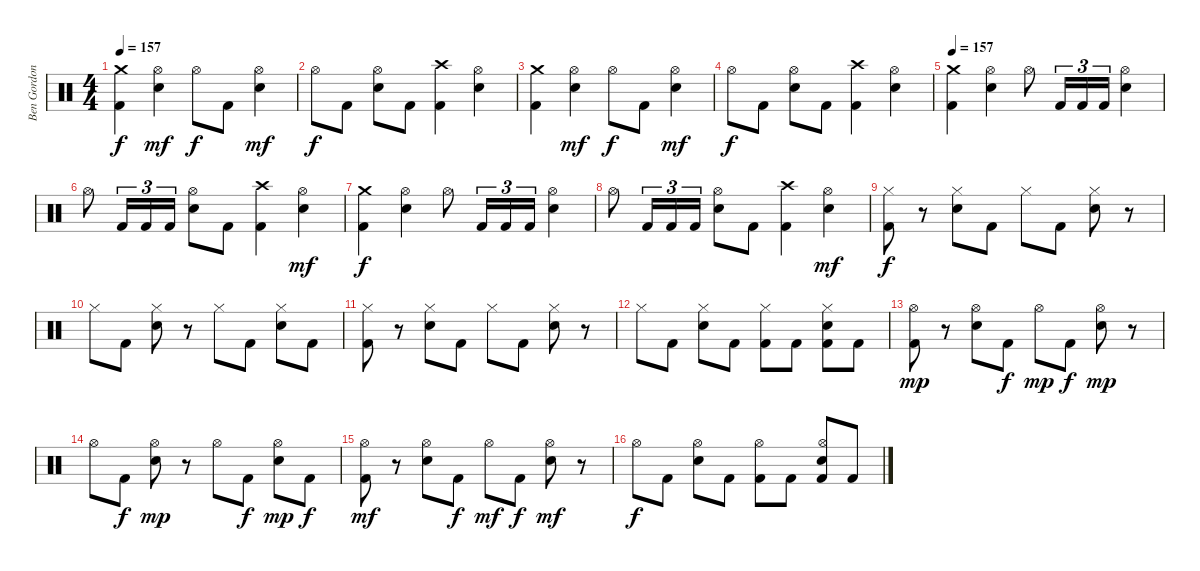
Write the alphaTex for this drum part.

\track ("Ben Gordon" "Ben Gordon") {instrument percussion}
\staff {score}
\articulation defaults
\ts (4 4)
\tempo 157
\clef neutral
\ks c
("Crash medium (hit)" "Kick (hit) 2").4{dy f} ("Hi-Hat (open)" "Electric Snare (hit)").4{dy mf} "Hi-Hat (open)".8{dy f} "Kick (hit) 2".8 ("Hi-Hat (open)" "Electric Snare (hit)").4{dy mf} |
"Hi-Hat (open)".8{dy f} "Kick (hit) 2".8 ("Hi-Hat (open)" "Electric Snare (hit)").8 "Kick (hit) 2".8 ("Crash high (hit)" "Kick (hit) 2").4 ("Hi-Hat (open)" "Electric Snare (hit)").4 |
("Crash medium (hit)" "Kick (hit) 2").4 ("Hi-Hat (open)" "Electric Snare (hit)").4{dy mf} "Hi-Hat (open)".8{dy f} "Kick (hit) 2".8 ("Hi-Hat (open)" "Electric Snare (hit)").4{dy mf} |
"Hi-Hat (open)".8{dy f} "Kick (hit) 2".8 ("Hi-Hat (open)" "Electric Snare (hit)").8 "Kick (hit) 2".8 ("Crash high (hit)" "Kick (hit) 2").4 ("Hi-Hat (open)" "Electric Snare (hit)").4 |
\tempo 157
("Crash medium (hit)" "Kick (hit) 2").4 ("Hi-Hat (open)" "Electric Snare (hit)").4 "Hi-Hat (open)".8 "Kick (hit) 2".16{tu (3 2)} "Kick (hit) 2".16{tu (3 2)} "Kick (hit) 2".16{tu (3 2)} ("Hi-Hat (open)" "Electric Snare (hit)").4 |
"Hi-Hat (open)".8 "Kick (hit) 2".16{tu (3 2)} "Kick (hit) 2".16{tu (3 2)} "Kick (hit) 2".16{tu (3 2)} ("Hi-Hat (open)" "Electric Snare (hit)").8 "Kick (hit) 2".8 ("Crash high (hit)" "Kick (hit) 2").4 ("Hi-Hat (open)" "Electric Snare (hit)").4{dy mf} |
("Crash medium (hit)" "Kick (hit) 2").4{dy f} ("Hi-Hat (open)" "Electric Snare (hit)").4 "Hi-Hat (open)".8 "Kick (hit) 2".16{tu (3 2)} "Kick (hit) 2".16{tu (3 2)} "Kick (hit) 2".16{tu (3 2)} ("Hi-Hat (open)" "Electric Snare (hit)").4 |
"Hi-Hat (open)".8 "Kick (hit) 2".16{tu (3 2)} "Kick (hit) 2".16{tu (3 2)} "Kick (hit) 2".16{tu (3 2)} ("Hi-Hat (open)" "Electric Snare (hit)").8 "Kick (hit) 2".8 ("Crash high (hit)" "Kick (hit) 2").4 ("Hi-Hat (open)" "Electric Snare (hit)").4{dy mf} |
("Hi-Hat (closed)" "Kick (hit) 2").8{dy f} r.8 ("Hi-Hat (closed)" "Electric Snare (hit)").8 "Kick (hit) 2".8 "Hi-Hat (closed)".8 "Kick (hit) 2".8 ("Hi-Hat (closed)" "Electric Snare (hit)").8 r.8 |
"Hi-Hat (closed)".8 "Kick (hit) 2".8 ("Hi-Hat (closed)" "Electric Snare (hit)").8 r.8 "Hi-Hat (closed)".8 "Kick (hit) 2".8 ("Hi-Hat (closed)" "Electric Snare (hit)").8 "Kick (hit) 2".8 |
("Hi-Hat (closed)" "Kick (hit) 2").8 r.8 ("Hi-Hat (closed)" "Electric Snare (hit)").8 "Kick (hit) 2".8 "Hi-Hat (closed)".8 "Kick (hit) 2".8 ("Hi-Hat (closed)" "Electric Snare (hit)").8 r.8 |
"Hi-Hat (closed)".8 "Kick (hit) 2".8 ("Hi-Hat (closed)" "Electric Snare (hit)").8 "Kick (hit) 2".8 ("Hi-Hat (closed)" "Kick (hit) 2").8 "Kick (hit) 2".8 ("Hi-Hat (closed)" "Electric Snare (hit)" "Kick (hit) 2").8 "Kick (hit) 2".8 |
("Hi-Hat (open)" "Kick (hit) 2").8{dy mp} r.8 ("Hi-Hat (open)" "Electric Snare (hit)").8 "Kick (hit) 2".8{dy f} "Hi-Hat (open)".8{dy mp} "Kick (hit) 2".8{dy f} ("Hi-Hat (open)" "Electric Snare (hit)").8{dy mp} r.8 |
"Hi-Hat (open)".8 "Kick (hit) 2".8{dy f} ("Hi-Hat (open)" "Electric Snare (hit)").8{dy mp} r.8 "Hi-Hat (open)".8 "Kick (hit) 2".8{dy f} ("Hi-Hat (open)" "Electric Snare (hit)").8{dy mp} "Kick (hit) 2".8{dy f} |
("Hi-Hat (open)" "Kick (hit) 2").8{dy mf} r.8 ("Hi-Hat (open)" "Electric Snare (hit)").8 "Kick (hit) 2".8{dy f} "Hi-Hat (open)".8{dy mf} "Kick (hit) 2".8{dy f} ("Hi-Hat (open)" "Electric Snare (hit)").8{dy mf} r.8 |
"Hi-Hat (open)".8{dy f} "Kick (hit) 2".8 ("Hi-Hat (open)" "Electric Snare (hit)").8 "Kick (hit) 2".8 ("Hi-Hat (open)" "Kick (hit) 2").8 "Kick (hit) 2".8 ("Hi-Hat (open)" "Electric Snare (hit)" "Kick (hit) 2").8 "Kick (hit) 2".8
